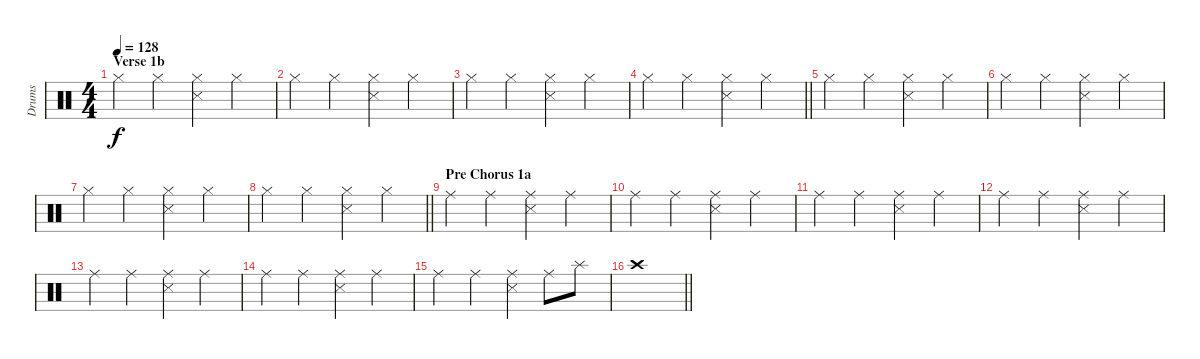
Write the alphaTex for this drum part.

\track ("Drums" "Drums") {instrument percussion}
\staff {score}
\articulation defaults
\ts (4 4)
\section ("" "Verse 1b")
\tempo 128
\clef neutral
\ks c "Hi-Hat (closed)".4{dy f} "Hi-Hat (closed)".4
("Hi-Hat (closed)" "Snare (side stick) 3").4 "Hi-Hat (closed)".4 |
"Hi-Hat (closed)".4 "Hi-Hat (closed)".4 ("Hi-Hat (closed)" "Snare (side stick) 3").4 "Hi-Hat (closed)".4 |
"Hi-Hat (closed)".4 "Hi-Hat (closed)".4 ("Hi-Hat (closed)" "Snare (side stick) 3").4 "Hi-Hat (closed)".4 |
\barLineRight lightlight "Hi-Hat (closed)".4 "Hi-Hat (closed)".4
("Hi-Hat (closed)" "Snare (side stick) 3").4 "Hi-Hat (closed)".4 |
"Hi-Hat (closed)".4 "Hi-Hat (closed)".4 ("Hi-Hat (closed)" "Snare (side stick) 3").4 "Hi-Hat (closed)".4 |
"Hi-Hat (closed)".4 "Hi-Hat (closed)".4 ("Hi-Hat (closed)" "Snare (side stick) 3").4 "Hi-Hat (closed)".4 |
"Hi-Hat (closed)".4 "Hi-Hat (closed)".4 ("Hi-Hat (closed)" "Snare (side stick) 3").4 "Hi-Hat (closed)".4 |
\barLineRight lightlight "Hi-Hat (closed)".4 "Hi-Hat (closed)".4
("Hi-Hat (closed)" "Snare (side stick) 3").4 "Hi-Hat (closed)".4 |
\section ("" "Pre Chorus 1a")
"Ride (middle)".4 "Ride (middle)".4 ("Ride (middle)" "Snare (side stick) 3").4 "Ride (middle)".4 |
"Ride (middle)".4 "Ride (middle)".4 ("Ride (middle)" "Snare (side stick) 3").4 "Ride (middle)".4 |
"Ride (middle)".4 "Ride (middle)".4 ("Ride (middle)" "Snare (side stick) 3").4 "Ride (middle)".4 |
"Ride (middle)".4 "Ride (middle)".4 ("Ride (middle)" "Snare (side stick) 3").4 "Ride (middle)".4 |
"Ride (middle)".4 "Ride (middle)".4 ("Ride (middle)" "Snare (side stick) 3").4 "Ride (middle)".4 |
"Ride (middle)".4 "Ride (middle)".4 ("Ride (middle)" "Snare (side stick) 3").4 "Ride (middle)".4 |
"Ride (middle)".4 "Ride (middle)".4 ("Ride (middle)" "Snare (side stick) 3").4 "Ride (middle)".8 "Splash (hit)".8 |
\barLineRight lightlight "Crash high (hit)".1
